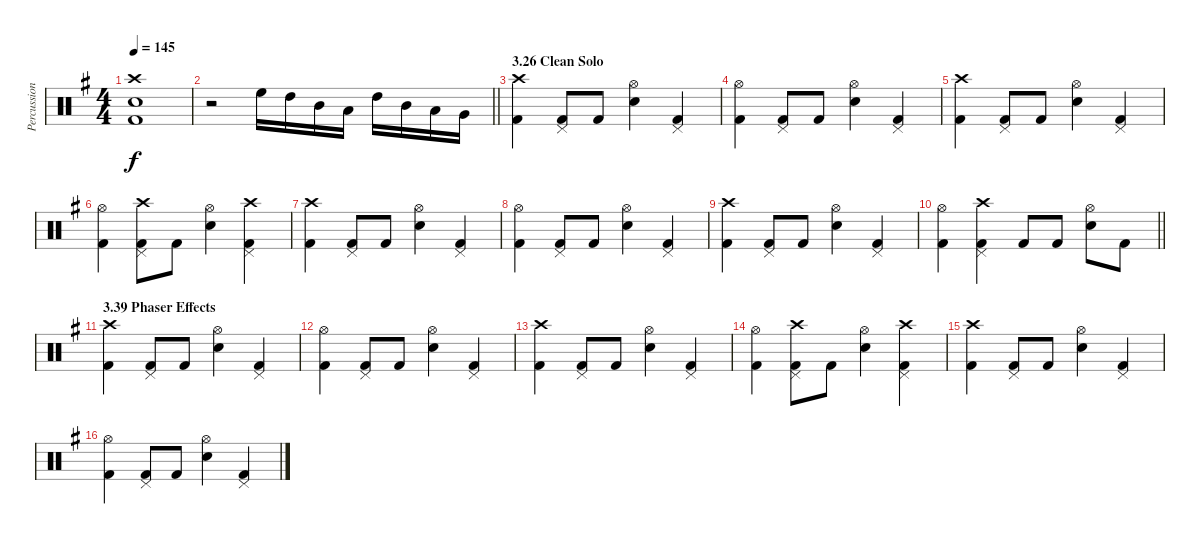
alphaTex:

\track ("Percussion" "Percussion") {instrument percussion}
\staff {score}
\articulation defaults
\ts (4 4)
\tempo 145
\clef neutral
\ks eminor
("Crash high (hit)" "Electric Snare (hit)" "Kick (hit) 2").1{dy f} |
\barLineRight lightlight
r.2 "High Floor Tom (hit)".16 "High Tom (hit)".16 "Mid Tom (hit)".16 "Low Tom (hit)".16 "High Tom (hit)".16 "Mid Tom (hit)".16 "Low Tom (hit)".16 "Very Low Tom (hit)".16 |
\section ("" "3.26 Clean Solo")
("Crash high (hit)" "Kick (hit) 2").4 ("Pedal Hi-Hat (hit)" "Kick (hit) 2").8 "Kick (hit) 2".8 ("Hi-Hat (open)" "Electric Snare (hit)").4 ("Pedal Hi-Hat (hit)" "Kick (hit) 2").4 |
("Hi-Hat (open)" "Kick (hit) 2").4 ("Pedal Hi-Hat (hit)" "Kick (hit) 2").8 "Kick (hit) 2".8 ("Hi-Hat (open)" "Electric Snare (hit)").4 ("Pedal Hi-Hat (hit)" "Kick (hit) 2").4 |
("Crash high (hit)" "Kick (hit) 2").4 ("Pedal Hi-Hat (hit)" "Kick (hit) 2").8 "Kick (hit) 2".8 ("Hi-Hat (open)" "Electric Snare (hit)").4 ("Pedal Hi-Hat (hit)" "Kick (hit) 2").4 |
("Hi-Hat (open)" "Kick (hit) 2").4 ("Crash high (hit)" "Pedal Hi-Hat (hit)" "Kick (hit) 2").8 "Kick (hit) 2".8 ("Hi-Hat (open)" "Electric Snare (hit)").4 ("Crash high (hit)" "Pedal Hi-Hat (hit)" "Kick (hit) 2").4 |
("Crash high (hit)" "Kick (hit) 2").4 ("Pedal Hi-Hat (hit)" "Kick (hit) 2").8 "Kick (hit) 2".8 ("Hi-Hat (open)" "Electric Snare (hit)").4 ("Pedal Hi-Hat (hit)" "Kick (hit) 2").4 |
("Hi-Hat (open)" "Kick (hit) 2").4 ("Pedal Hi-Hat (hit)" "Kick (hit) 2").8 "Kick (hit) 2".8 ("Hi-Hat (open)" "Electric Snare (hit)").4 ("Pedal Hi-Hat (hit)" "Kick (hit) 2").4 |
("Crash high (hit)" "Kick (hit) 2").4 ("Pedal Hi-Hat (hit)" "Kick (hit) 2").8 "Kick (hit) 2".8 ("Hi-Hat (open)" "Electric Snare (hit)").4 ("Pedal Hi-Hat (hit)" "Kick (hit) 2").4 |
\barLineRight lightlight
("Hi-Hat (open)" "Kick (hit) 2").4 ("Crash high (hit)" "Pedal Hi-Hat (hit)" "Kick (hit) 2").4 "Kick (hit) 2".8 "Kick (hit) 2".8 ("Hi-Hat (open)" "Electric Snare (hit)").8 "Kick (hit) 2".8 |
\section ("" "3.39 Phaser Effects")
("Crash high (hit)" "Kick (hit) 2").4 ("Pedal Hi-Hat (hit)" "Kick (hit) 2").8 "Kick (hit) 2".8 ("Hi-Hat (open)" "Electric Snare (hit)").4 ("Pedal Hi-Hat (hit)" "Kick (hit) 2").4 |
("Hi-Hat (open)" "Kick (hit) 2").4 ("Pedal Hi-Hat (hit)" "Kick (hit) 2").8 "Kick (hit) 2".8 ("Hi-Hat (open)" "Electric Snare (hit)").4 ("Pedal Hi-Hat (hit)" "Kick (hit) 2").4 |
("Crash high (hit)" "Kick (hit) 2").4 ("Pedal Hi-Hat (hit)" "Kick (hit) 2").8 "Kick (hit) 2".8 ("Hi-Hat (open)" "Electric Snare (hit)").4 ("Pedal Hi-Hat (hit)" "Kick (hit) 2").4 |
("Hi-Hat (open)" "Kick (hit) 2").4 ("Crash high (hit)" "Pedal Hi-Hat (hit)" "Kick (hit) 2").8 "Kick (hit) 2".8 ("Hi-Hat (open)" "Electric Snare (hit)").4 ("Crash high (hit)" "Pedal Hi-Hat (hit)" "Kick (hit) 2").4 |
("Crash high (hit)" "Kick (hit) 2").4 ("Pedal Hi-Hat (hit)" "Kick (hit) 2").8 "Kick (hit) 2".8 ("Hi-Hat (open)" "Electric Snare (hit)").4 ("Pedal Hi-Hat (hit)" "Kick (hit) 2").4 |
("Hi-Hat (open)" "Kick (hit) 2").4 ("Pedal Hi-Hat (hit)" "Kick (hit) 2").8 "Kick (hit) 2".8 ("Hi-Hat (open)" "Electric Snare (hit)").4 ("Pedal Hi-Hat (hit)" "Kick (hit) 2").4
